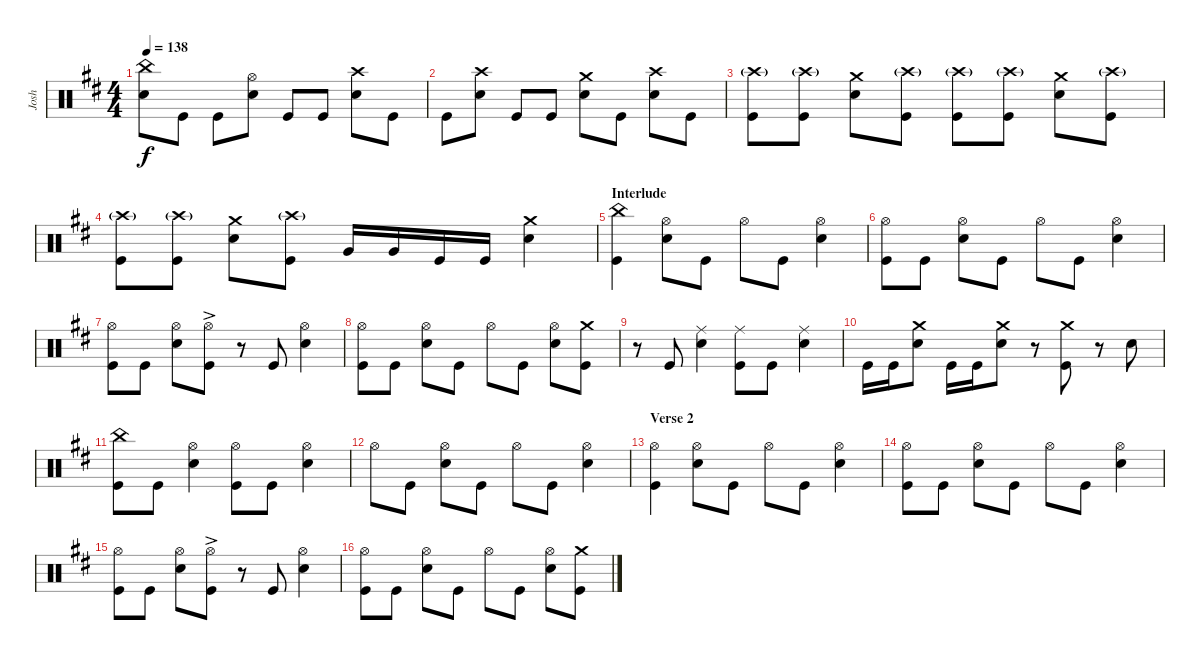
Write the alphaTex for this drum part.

\track ("Josh" "Josh") {instrument percussion}
\staff {score}
\articulation defaults
\ts (4 4)
\tempo 138
\clef neutral
\ks d
("Snare (hit) 2" "China (hit)").8{dy f} "Kick (hit)".8 "Kick (hit)".8 ("Snare (hit) 2" "Hi-Hat (open)").8 "Kick (hit)".8 "Kick (hit)".8 ("Snare (hit) 2" "Crash high (hit)").8 "Kick (hit)".8 |
"Kick (hit)".8 ("Snare (hit) 2" "Crash high (hit)").8 "Kick (hit)".8 "Kick (hit)".8 ("Snare (hit) 2" "Crash medium (hit)").8 "Kick (hit)".8 ("Snare (hit) 2" "Crash high (hit)").8 "Kick (hit)".8 |
("Kick (hit)" "Crash high (hit)"{g}).8 ("Kick (hit)" "Crash high (hit)"{g}).8 ("Snare (hit) 2" "Crash medium (hit)").8 ("Kick (hit)" "Crash high (hit)"{g}).8 ("Kick (hit)" "Crash high (hit)"{g}).8 ("Kick (hit)" "Crash high (hit)"{g}).8 ("Snare (hit) 2" "Crash medium (hit)").8 ("Kick (hit)" "Crash high (hit)"{g}).8 |
("Kick (hit)" "Crash high (hit)"{g}).8 ("Kick (hit)" "Crash high (hit)"{g}).8 ("Snare (hit) 2" "Crash medium (hit)").8 ("Kick (hit)" "Crash high (hit)"{g}).8 "Very Low Tom (hit)".16 "Very Low Tom (hit)".16 "Kick (hit)".16 "Kick (hit)".16 ("Snare (hit) 2" "Crash medium (hit)").4 |
\section ("" "Interlude")
("Kick (hit)" "China (hit)").4 ("Snare (hit) 2" "Hi-Hat (open)").8 "Kick (hit)".8 "Hi-Hat (open)".8 "Kick (hit)".8 ("Snare (hit) 2" "Hi-Hat (open)").4 |
("Kick (hit)" "Hi-Hat (open)").8 "Kick (hit)".8 ("Snare (hit) 2" "Hi-Hat (open)").8 "Kick (hit)".8 "Hi-Hat (open)".8 "Kick (hit)".8 ("Snare (hit) 2" "Hi-Hat (open)").4 |
("Kick (hit)" "Hi-Hat (open)").8 "Kick (hit)".8 ("Snare (hit) 2" "Hi-Hat (open)").8 ("Kick (hit)" "Hi-Hat (open)"{ac}).8 r.8 "Kick (hit)".8 ("Snare (hit) 2" "Hi-Hat (open)").4 |
("Kick (hit)" "Hi-Hat (open)").8 "Kick (hit)".8 ("Snare (hit) 2" "Hi-Hat (open)").8 "Kick (hit)".8 "Hi-Hat (open)".8 "Kick (hit)".8 ("Snare (hit) 2" "Hi-Hat (open)").8 ("Kick (hit)" "Crash medium (hit)").8 |
r.8 "Kick (hit)".8 ("Snare (hit) 2" "Ride (middle)").4 ("Kick (hit)" "Ride (middle)").8 "Kick (hit)".8 ("Snare (hit) 2" "Ride (middle)").4 |
"Kick (hit)".16 "Kick (hit)".16 ("Snare (hit) 2" "Crash medium (hit)").8 "Kick (hit)".16 "Kick (hit)".16 ("Snare (hit) 2" "Crash medium (hit)").8 r.8 ("Kick (hit)" "Crash medium (hit)").8 r.8 "Snare (hit) 2".8 |
("China (hit)" "Kick (hit)").8 "Kick (hit)".8 ("Snare (hit) 2" "Hi-Hat (open)").4 ("Kick (hit)" "Hi-Hat (open)").8 "Kick (hit)".8 ("Snare (hit) 2" "Hi-Hat (open)").4 |
"Hi-Hat (open)".8 "Kick (hit)".8 ("Snare (hit) 2" "Hi-Hat (open)").8 "Kick (hit)".8 "Hi-Hat (open)".8 "Kick (hit)".8 ("Snare (hit) 2" "Hi-Hat (open)").4 |
\section ("" "Verse 2")
("Hi-Hat (open)" "Kick (hit)").4 ("Snare (hit) 2" "Hi-Hat (open)").8 "Kick (hit)".8 "Hi-Hat (open)".8 "Kick (hit)".8 ("Snare (hit) 2" "Hi-Hat (open)").4 |
("Kick (hit)" "Hi-Hat (open)").8 "Kick (hit)".8 ("Snare (hit) 2" "Hi-Hat (open)").8 "Kick (hit)".8 "Hi-Hat (open)".8 "Kick (hit)".8 ("Snare (hit) 2" "Hi-Hat (open)").4 |
("Kick (hit)" "Hi-Hat (open)").8 "Kick (hit)".8 ("Snare (hit) 2" "Hi-Hat (open)").8 ("Kick (hit)" "Hi-Hat (open)"{ac}).8 r.8 "Kick (hit)".8 ("Snare (hit) 2" "Hi-Hat (open)").4 |
("Kick (hit)" "Hi-Hat (open)").8 "Kick (hit)".8 ("Snare (hit) 2" "Hi-Hat (open)").8 "Kick (hit)".8 "Hi-Hat (open)".8 "Kick (hit)".8 ("Snare (hit) 2" "Hi-Hat (open)").8 ("Kick (hit)" "Crash medium (hit)").8
